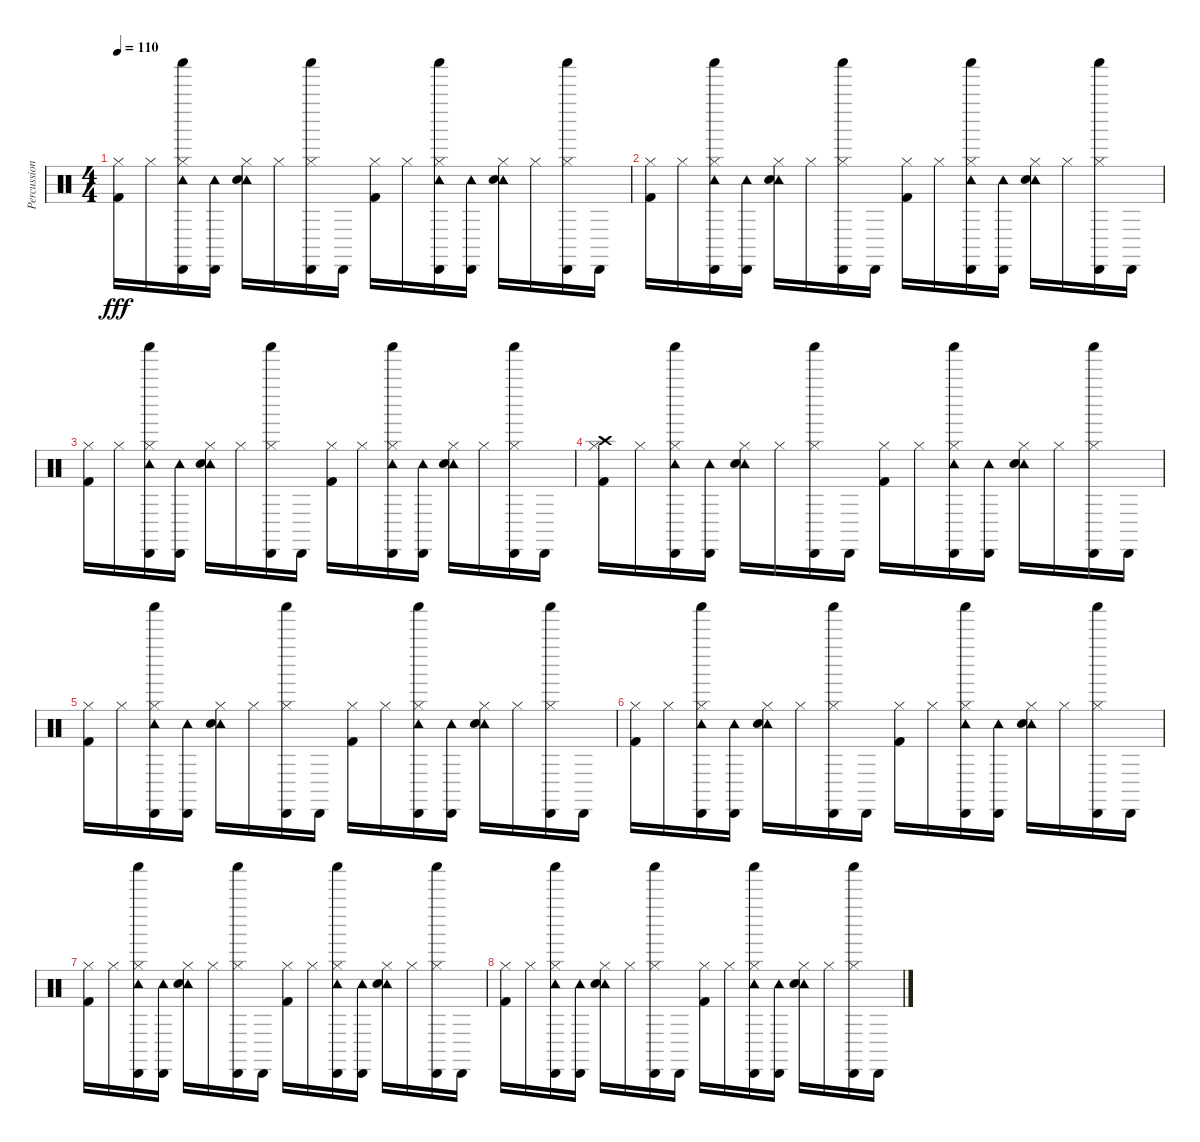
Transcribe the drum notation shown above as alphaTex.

\track ("Percussions" "Percussion") {instrument percussion}
\staff {score}
\articulation defaults
\ts (4 4)
\tempo 110
\clef neutral
\ks c
("Hi-Hat (closed)" "Kick (hit) 2").16{dy fff} "Hi-Hat (closed)".16 ("Hi-Hat (closed)" "Tambourine (hit)" "Cabasa (hit)" "Shaker (hit)").16 ("Tambourine (hit)" "Cabasa (hit)").16 ("Hi-Hat (closed)" "Tambourine (hit)" "Electric Snare (hit)").16 "Hi-Hat (closed)".16 ("Hi-Hat (closed)" "Cabasa (hit)" "Shaker (hit)").16 "Cabasa (hit)".16 ("Hi-Hat (closed)" "Kick (hit) 2").16 "Hi-Hat (closed)".16 ("Hi-Hat (closed)" "Tambourine (hit)" "Cabasa (hit)" "Shaker (hit)").16 ("Tambourine (hit)" "Cabasa (hit)").16 ("Hi-Hat (closed)" "Tambourine (hit)" "Electric Snare (hit)").16 "Hi-Hat (closed)".16 ("Hi-Hat (closed)" "Cabasa (hit)" "Shaker (hit)").16 "Cabasa (hit)".16 |
("Hi-Hat (closed)" "Kick (hit) 2").16 "Hi-Hat (closed)".16 ("Hi-Hat (closed)" "Tambourine (hit)" "Cabasa (hit)" "Shaker (hit)").16 ("Tambourine (hit)" "Cabasa (hit)").16 ("Hi-Hat (closed)" "Tambourine (hit)" "Electric Snare (hit)").16 "Hi-Hat (closed)".16 ("Hi-Hat (closed)" "Cabasa (hit)" "Shaker (hit)").16 "Cabasa (hit)".16 ("Hi-Hat (closed)" "Kick (hit) 2").16 "Hi-Hat (closed)".16 ("Hi-Hat (closed)" "Tambourine (hit)" "Cabasa (hit)" "Shaker (hit)").16 ("Tambourine (hit)" "Cabasa (hit)").16 ("Hi-Hat (closed)" "Tambourine (hit)" "Electric Snare (hit)").16 "Hi-Hat (closed)".16 ("Hi-Hat (closed)" "Cabasa (hit)" "Shaker (hit)").16 "Cabasa (hit)".16 |
("Hi-Hat (closed)" "Kick (hit) 2").16 "Hi-Hat (closed)".16 ("Hi-Hat (closed)" "Tambourine (hit)" "Cabasa (hit)" "Shaker (hit)").16 ("Tambourine (hit)" "Cabasa (hit)").16 ("Hi-Hat (closed)" "Tambourine (hit)" "Electric Snare (hit)").16 "Hi-Hat (closed)".16 ("Hi-Hat (closed)" "Cabasa (hit)" "Shaker (hit)").16 "Cabasa (hit)".16 ("Hi-Hat (closed)" "Kick (hit) 2").16 "Hi-Hat (closed)".16 ("Hi-Hat (closed)" "Tambourine (hit)" "Cabasa (hit)" "Shaker (hit)").16 ("Tambourine (hit)" "Cabasa (hit)").16 ("Hi-Hat (closed)" "Tambourine (hit)" "Electric Snare (hit)").16 "Hi-Hat (closed)".16 ("Hi-Hat (closed)" "Cabasa (hit)" "Shaker (hit)").16 "Cabasa (hit)".16 |
("Hi-Hat (closed)" "Crash high (hit)" "Kick (hit) 2").16 "Hi-Hat (closed)".16 ("Hi-Hat (closed)" "Tambourine (hit)" "Cabasa (hit)" "Shaker (hit)").16 ("Tambourine (hit)" "Cabasa (hit)").16 ("Hi-Hat (closed)" "Tambourine (hit)" "Electric Snare (hit)").16 "Hi-Hat (closed)".16 ("Hi-Hat (closed)" "Cabasa (hit)" "Shaker (hit)").16 "Cabasa (hit)".16 ("Hi-Hat (closed)" "Kick (hit) 2").16 "Hi-Hat (closed)".16 ("Hi-Hat (closed)" "Tambourine (hit)" "Cabasa (hit)" "Shaker (hit)").16 ("Tambourine (hit)" "Cabasa (hit)").16 ("Hi-Hat (closed)" "Tambourine (hit)" "Electric Snare (hit)").16 "Hi-Hat (closed)".16 ("Hi-Hat (closed)" "Cabasa (hit)" "Shaker (hit)").16 "Cabasa (hit)".16 |
("Hi-Hat (closed)" "Kick (hit) 2").16 "Hi-Hat (closed)".16 ("Hi-Hat (closed)" "Tambourine (hit)" "Cabasa (hit)" "Shaker (hit)").16 ("Tambourine (hit)" "Cabasa (hit)").16 ("Hi-Hat (closed)" "Tambourine (hit)" "Electric Snare (hit)").16 "Hi-Hat (closed)".16 ("Hi-Hat (closed)" "Cabasa (hit)" "Shaker (hit)").16 "Cabasa (hit)".16 ("Hi-Hat (closed)" "Kick (hit) 2").16 "Hi-Hat (closed)".16 ("Hi-Hat (closed)" "Tambourine (hit)" "Cabasa (hit)" "Shaker (hit)").16 ("Tambourine (hit)" "Cabasa (hit)").16 ("Hi-Hat (closed)" "Tambourine (hit)" "Electric Snare (hit)").16 "Hi-Hat (closed)".16 ("Hi-Hat (closed)" "Cabasa (hit)" "Shaker (hit)").16 "Cabasa (hit)".16 |
("Hi-Hat (closed)" "Kick (hit) 2").16 "Hi-Hat (closed)".16 ("Hi-Hat (closed)" "Tambourine (hit)" "Cabasa (hit)" "Shaker (hit)").16 ("Tambourine (hit)" "Cabasa (hit)").16 ("Hi-Hat (closed)" "Tambourine (hit)" "Electric Snare (hit)").16 "Hi-Hat (closed)".16 ("Hi-Hat (closed)" "Cabasa (hit)" "Shaker (hit)").16 "Cabasa (hit)".16 ("Hi-Hat (closed)" "Kick (hit) 2").16 "Hi-Hat (closed)".16 ("Hi-Hat (closed)" "Tambourine (hit)" "Cabasa (hit)" "Shaker (hit)").16 ("Tambourine (hit)" "Cabasa (hit)").16 ("Hi-Hat (closed)" "Tambourine (hit)" "Electric Snare (hit)").16 "Hi-Hat (closed)".16 ("Hi-Hat (closed)" "Cabasa (hit)" "Shaker (hit)").16 "Cabasa (hit)".16 |
("Hi-Hat (closed)" "Kick (hit) 2").16 "Hi-Hat (closed)".16 ("Hi-Hat (closed)" "Tambourine (hit)" "Cabasa (hit)" "Shaker (hit)").16 ("Tambourine (hit)" "Cabasa (hit)").16 ("Hi-Hat (closed)" "Tambourine (hit)" "Electric Snare (hit)").16 "Hi-Hat (closed)".16 ("Hi-Hat (closed)" "Cabasa (hit)" "Shaker (hit)").16 "Cabasa (hit)".16 ("Hi-Hat (closed)" "Kick (hit) 2").16 "Hi-Hat (closed)".16 ("Hi-Hat (closed)" "Tambourine (hit)" "Cabasa (hit)" "Shaker (hit)").16 ("Tambourine (hit)" "Cabasa (hit)").16 ("Hi-Hat (closed)" "Tambourine (hit)" "Electric Snare (hit)").16 "Hi-Hat (closed)".16 ("Hi-Hat (closed)" "Cabasa (hit)" "Shaker (hit)").16 "Cabasa (hit)".16 |
("Hi-Hat (closed)" "Kick (hit) 2").16 "Hi-Hat (closed)".16 ("Hi-Hat (closed)" "Tambourine (hit)" "Cabasa (hit)" "Shaker (hit)").16 ("Tambourine (hit)" "Cabasa (hit)").16 ("Hi-Hat (closed)" "Tambourine (hit)" "Electric Snare (hit)").16 "Hi-Hat (closed)".16 ("Hi-Hat (closed)" "Cabasa (hit)" "Shaker (hit)").16 "Cabasa (hit)".16 ("Hi-Hat (closed)" "Kick (hit) 2").16 "Hi-Hat (closed)".16 ("Hi-Hat (closed)" "Tambourine (hit)" "Cabasa (hit)" "Shaker (hit)").16 ("Tambourine (hit)" "Cabasa (hit)").16 ("Hi-Hat (closed)" "Tambourine (hit)" "Electric Snare (hit)").16 "Hi-Hat (closed)".16 ("Hi-Hat (closed)" "Cabasa (hit)" "Shaker (hit)").16 "Cabasa (hit)".16
